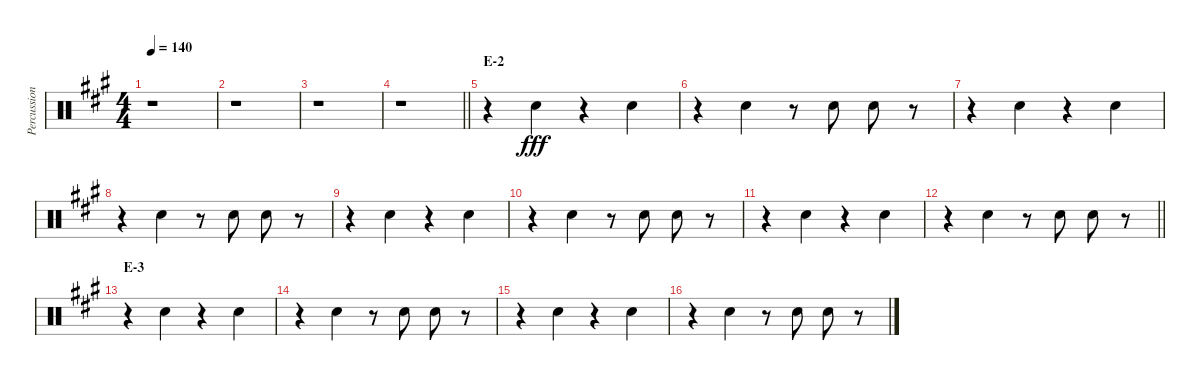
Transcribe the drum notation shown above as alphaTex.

\track ("Percussion" "Percussion") {instrument percussion}
\staff {score}
\articulation defaults
\ts (4 4)
\tempo 140
\clef neutral
\ks a
r.1{dy fff} |
r.1 |
r.1 |
\barLineRight lightlight
r.1 |
\section ("" "E-2")
r.4 "Hand Clap (hit)".4 r.4 "Hand Clap (hit)".4 |
r.4 "Hand Clap (hit)".4 r.8 "Hand Clap (hit)".8 "Hand Clap (hit)".8 r.8 |
r.4 "Hand Clap (hit)".4 r.4 "Hand Clap (hit)".4 |
r.4 "Hand Clap (hit)".4 r.8 "Hand Clap (hit)".8 "Hand Clap (hit)".8 r.8 |
r.4 "Hand Clap (hit)".4 r.4 "Hand Clap (hit)".4 |
r.4 "Hand Clap (hit)".4 r.8 "Hand Clap (hit)".8 "Hand Clap (hit)".8 r.8 |
r.4 "Hand Clap (hit)".4 r.4 "Hand Clap (hit)".4 |
\barLineRight lightlight
r.4 "Hand Clap (hit)".4 r.8 "Hand Clap (hit)".8 "Hand Clap (hit)".8 r.8 |
\section ("" "E-3")
r.4 "Hand Clap (hit)".4 r.4 "Hand Clap (hit)".4 |
r.4 "Hand Clap (hit)".4 r.8 "Hand Clap (hit)".8 "Hand Clap (hit)".8 r.8 |
r.4 "Hand Clap (hit)".4 r.4 "Hand Clap (hit)".4 |
r.4 "Hand Clap (hit)".4 r.8 "Hand Clap (hit)".8 "Hand Clap (hit)".8 r.8
